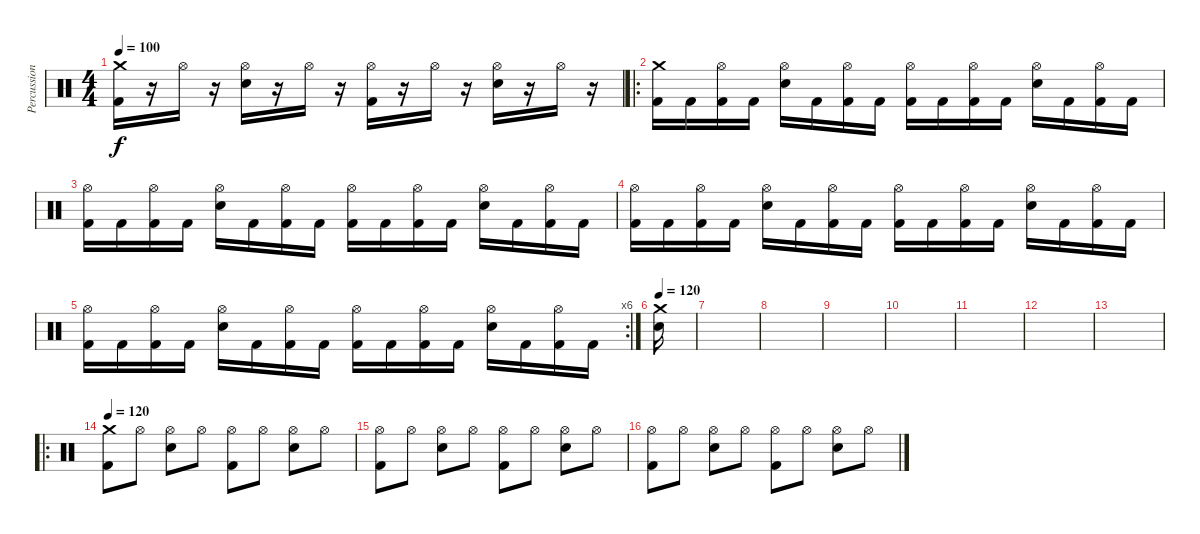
\track ("Percussion" "Percussion") {instrument percussion}
\staff {score}
\articulation defaults
\ts (4 4)
\tempo 100
\clef neutral
\ks c
("Crash medium (hit)" "Kick (hit) 2").16{dy f} r.16 "Hi-Hat (open)".16 r.16 ("Hi-Hat (open)" "Electric Snare (hit)").16 r.16 "Hi-Hat (open)".16 r.16 ("Hi-Hat (open)" "Kick (hit) 2").16 r.16 "Hi-Hat (open)".16 r.16 ("Hi-Hat (open)" "Electric Snare (hit)").16 r.16 "Hi-Hat (open)".16 r.16 |
\ro
("Crash medium (hit)" "Kick (hit) 2").16 "Kick (hit) 2".16 ("Hi-Hat (open)" "Kick (hit) 2").16 "Kick (hit) 2".16 ("Hi-Hat (open)" "Electric Snare (hit)").16 "Kick (hit) 2".16 ("Hi-Hat (open)" "Kick (hit) 2").16 "Kick (hit) 2".16 ("Hi-Hat (open)" "Kick (hit) 2").16 "Kick (hit) 2".16 ("Hi-Hat (open)" "Kick (hit) 2").16 "Kick (hit) 2".16 ("Hi-Hat (open)" "Electric Snare (hit)").16 "Kick (hit) 2".16 ("Hi-Hat (open)" "Kick (hit) 2").16 "Kick (hit) 2".16 |
("Hi-Hat (open)" "Kick (hit) 2").16 "Kick (hit) 2".16 ("Hi-Hat (open)" "Kick (hit) 2").16 "Kick (hit) 2".16 ("Hi-Hat (open)" "Electric Snare (hit)").16 "Kick (hit) 2".16 ("Hi-Hat (open)" "Kick (hit) 2").16 "Kick (hit) 2".16 ("Hi-Hat (open)" "Kick (hit) 2").16 "Kick (hit) 2".16 ("Hi-Hat (open)" "Kick (hit) 2").16 "Kick (hit) 2".16 ("Hi-Hat (open)" "Electric Snare (hit)").16 "Kick (hit) 2".16 ("Hi-Hat (open)" "Kick (hit) 2").16 "Kick (hit) 2".16 |
("Hi-Hat (open)" "Kick (hit) 2").16 "Kick (hit) 2".16 ("Hi-Hat (open)" "Kick (hit) 2").16 "Kick (hit) 2".16 ("Hi-Hat (open)" "Electric Snare (hit)").16 "Kick (hit) 2".16 ("Hi-Hat (open)" "Kick (hit) 2").16 "Kick (hit) 2".16 ("Hi-Hat (open)" "Kick (hit) 2").16 "Kick (hit) 2".16 ("Hi-Hat (open)" "Kick (hit) 2").16 "Kick (hit) 2".16 ("Hi-Hat (open)" "Electric Snare (hit)").16 "Kick (hit) 2".16 ("Hi-Hat (open)" "Kick (hit) 2").16 "Kick (hit) 2".16 |
\rc 6
("Hi-Hat (open)" "Kick (hit) 2").16 "Kick (hit) 2".16 ("Hi-Hat (open)" "Kick (hit) 2").16 "Kick (hit) 2".16 ("Hi-Hat (open)" "Electric Snare (hit)").16 "Kick (hit) 2".16 ("Hi-Hat (open)" "Kick (hit) 2").16 "Kick (hit) 2".16 ("Hi-Hat (open)" "Kick (hit) 2").16 "Kick (hit) 2".16 ("Hi-Hat (open)" "Kick (hit) 2").16 "Kick (hit) 2".16 ("Hi-Hat (open)" "Electric Snare (hit)").16 "Kick (hit) 2".16 ("Hi-Hat (open)" "Kick (hit) 2").16 "Kick (hit) 2".16 |
\tempo 120
("Crash medium (hit)" "Electric Snare (hit)").16 |
|
|
|
|
|
|
|
\ro
\tempo 120
("Crash medium (hit)" "Kick (hit) 2").8 "Hi-Hat (open)".8 ("Hi-Hat (open)" "Electric Snare (hit)").8 "Hi-Hat (open)".8 ("Hi-Hat (open)" "Kick (hit) 2").8 "Hi-Hat (open)".8 ("Hi-Hat (open)" "Electric Snare (hit)").8 "Hi-Hat (open)".8 |
("Hi-Hat (open)" "Kick (hit) 2").8 "Hi-Hat (open)".8 ("Hi-Hat (open)" "Electric Snare (hit)").8 "Hi-Hat (open)".8 ("Hi-Hat (open)" "Kick (hit) 2").8 "Hi-Hat (open)".8 ("Hi-Hat (open)" "Electric Snare (hit)").8 "Hi-Hat (open)".8 |
("Hi-Hat (open)" "Kick (hit) 2").8 "Hi-Hat (open)".8 ("Hi-Hat (open)" "Electric Snare (hit)").8 "Hi-Hat (open)".8 ("Hi-Hat (open)" "Kick (hit) 2").8 "Hi-Hat (open)".8 ("Hi-Hat (open)" "Electric Snare (hit)").8 "Hi-Hat (open)".8
